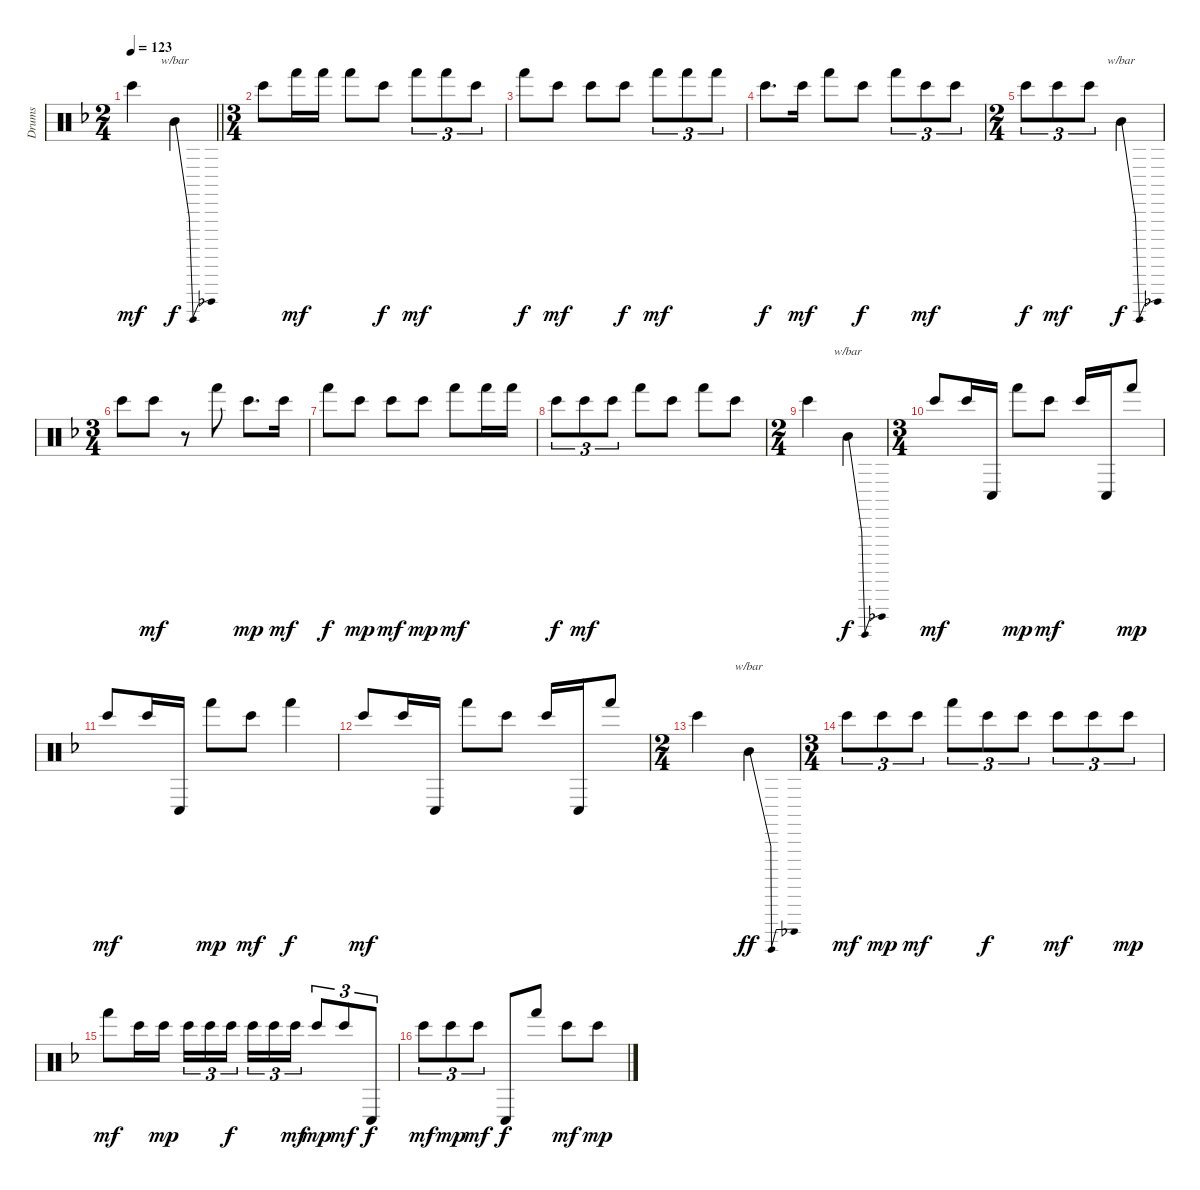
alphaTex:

\track ("Drums" "Drums") {instrument percussion}
\staff {score}
\articulation defaults
\ts (2 4)
\tempo 123
\clef neutral
\barLineRight lightlight
\ks dminor "Bongo High (hit)".4{dy mf} "Mid Tom (hit)".4{tbe (dip default 0 0 30 -12 60 0) dy f}
|
\ts (3 4)
"Bongo High (hit)".8 "Hand (hit)".16{dy mf} "Hand (hit)".16 "Hand (hit)".8 "Bongo High (hit)".8{dy f} "Hand (hit)".8{tu (3 2) dy mf} "Hand (hit)".8{tu (3 2)} "Bongo High (hit)".8{tu (3 2)} |
"Hand (hit)".8{dy f} "Bongo High (hit)".8{dy mf} "Bongo High (hit)".8 "Bongo High (hit)".8{dy f} "Hand (hit)".8{tu (3 2) dy mf} "Hand (hit)".8{tu (3 2)} "Hand (hit)".8{tu (3 2)} |
"Bongo High (hit)".8{d dy f} "Bongo High (hit)".16{dy mf} "Hand (hit)".8 "Bongo High (hit)".8{dy f} "Hand (hit)".8{tu (3 2)} "Bongo High (hit)".8{tu (3 2) dy mf} "Bongo High (hit)".8{tu (3 2)} |
\ts (2 4)
"Bongo High (hit)".8{tu (3 2) dy f} "Bongo High (hit)".8{tu (3 2) dy mf} "Bongo High (hit)".8{tu (3 2)} "Mid Tom (hit)".4{tbe (dip default 0 0 30 -12 60 0) dy f} |
\ts (3 4)
"Bongo High (hit)".8 "Bongo High (hit)".8{dy mf} r.8 "Hand (hit)".8 "Bongo High (hit)".8{d dy mp} "Bongo High (hit)".16{dy mf} |
"Hand (hit)".8{dy f} "Bongo High (hit)".8{dy mp} "Bongo High (hit)".8{dy mf} "Bongo High (hit)".8{dy mp} "Hand (hit)".8{dy mf} "Hand (hit)".16 "Hand (hit)".16 |
"Bongo High (hit)".8{tu (3 2) dy f} "Bongo High (hit)".8{tu (3 2) dy mf} "Bongo High (hit)".8{tu (3 2)} "Hand (hit)".8 "Bongo High (hit)".8 "Hand (hit)".8 "Bongo High (hit)".8 |
\ts (2 4)
"Bongo High (hit)".4 "Mid Tom (hit)".4{tbe (dip default 0 0 30 -12 60 0) dy f} |
\ts (3 4)
"Bongo High (hit)".8{dy mf} "Bongo High (hit)".16 "Conga low (hit)".16 "Hand (hit)".8{dy mp} "Bongo High (hit)".8{dy mf} "Bongo High (hit)".16 "Conga low (hit)".16 "Hand (hit)".8{dy mp} |
"Bongo High (hit)".8{dy mf} "Bongo High (hit)".16 "Conga low (hit)".16 "Hand (hit)".8{dy mp} "Bongo High (hit)".8{dy mf} "Hand (hit)".4{dy f} |
"Bongo High (hit)".8{dy mf} "Bongo High (hit)".16 "Conga low (hit)".16 "Hand (hit)".8 "Bongo High (hit)".8 "Bongo High (hit)".16 "Conga low (hit)".16 "Hand (hit)".8 |
\ts (2 4)
"Bongo High (hit)".4 "Mid Tom (hit)".4{tbe (dip default 0 0 30 -12 60 0) dy ff} |
\ts (3 4)
"Bongo High (hit)".8{tu (3 2) dy mf} "Bongo High (hit)".8{tu (3 2) dy mp} "Bongo High (hit)".8{tu (3 2) dy mf} "Hand (hit)".8{tu (3 2)} "Bongo High (hit)".8{tu (3 2) dy f} "Bongo High (hit)".8{tu (3 2)} "Bongo High (hit)".8{tu (3 2) dy mf} "Bongo High (hit)".8{tu (3 2)} "Bongo High (hit)".8{tu (3 2) dy mp} |
"Hand (hit)".8{dy mf} "Bongo High (hit)".16 "Bongo High (hit)".16{dy mp} "Bongo High (hit)".16{tu (3 2)} "Bongo High (hit)".16{tu (3 2)} "Bongo High (hit)".16{tu (3 2) dy f beam splitsecondary} "Bongo High (hit)".16{tu (3 2)} "Bongo High (hit)".16{tu (3 2)} "Bongo High (hit)".16{tu (3 2) dy mf} "Bongo High (hit)".8{tu (3 2) dy mp} "Bongo High (hit)".8{tu (3 2) dy mf} "Conga low (hit)".8{tu (3 2) dy f} |
"Bongo High (hit)".8{tu (3 2) dy mf} "Bongo High (hit)".8{tu (3 2) dy mp} "Bongo High (hit)".8{tu (3 2) dy mf} "Conga low (hit)".8{dy f} "Hand (hit)".8 "Bongo High (hit)".8{dy mf} "Bongo High (hit)".8{dy mp}
